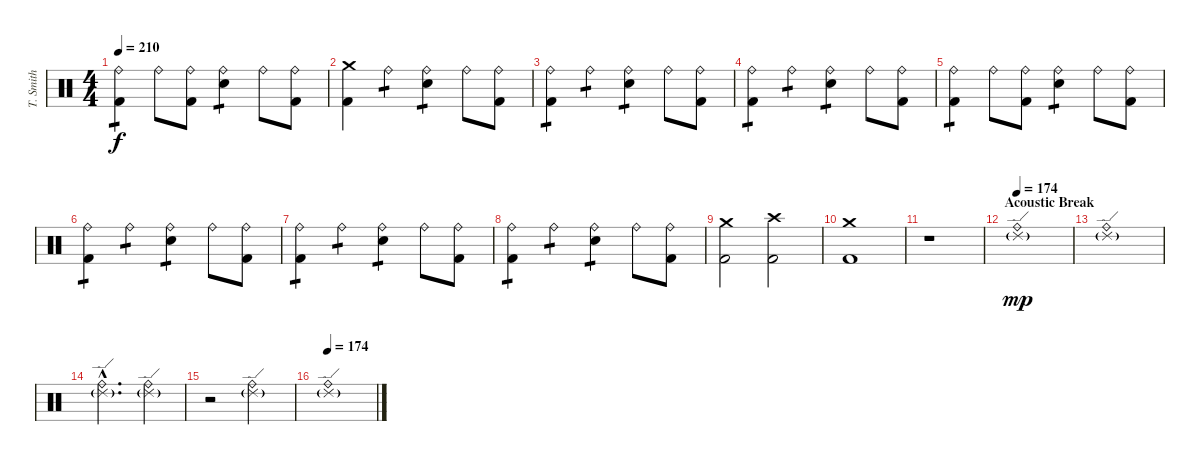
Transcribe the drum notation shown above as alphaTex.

\track ("T. Smith" "T. Smith") {instrument percussion}
\staff {score}
\articulation defaults
\ts (4 4)
\tempo 210
\clef neutral
\ks c
("Ride (bell)" "Kick (hit) 2").4{tp 1 dy f} "Ride (bell)".8 ("Ride (bell)" "Kick (hit) 2").8 ("Ride (bell)" "Electric Snare (hit)").4{tp 1} "Ride (bell)".8 ("Ride (bell)" "Kick (hit) 2").8 |
("Crash medium (hit)" "Kick (hit) 2").4 "Ride (bell)".4{tp 1} ("Ride (bell)" "Electric Snare (hit)").4{tp 1} "Ride (bell)".8 ("Ride (bell)" "Kick (hit) 2").8 |
("Ride (bell)" "Kick (hit) 2").4{tp 1} "Ride (bell)".4{tp 1} ("Ride (bell)" "Electric Snare (hit)").4{tp 1} "Ride (bell)".8 ("Ride (bell)" "Kick (hit) 2").8 |
("Ride (bell)" "Kick (hit) 2").4{tp 1} "Ride (bell)".4{tp 1} ("Ride (bell)" "Electric Snare (hit)").4{tp 1} "Ride (bell)".8 ("Ride (bell)" "Kick (hit) 2").8 |
("Ride (bell)" "Kick (hit) 2").4{tp 1} "Ride (bell)".8 ("Ride (bell)" "Kick (hit) 2").8 ("Ride (bell)" "Electric Snare (hit)").4{tp 1} "Ride (bell)".8 ("Ride (bell)" "Kick (hit) 2").8 |
("Ride (bell)" "Kick (hit) 2").4{tp 1} "Ride (bell)".4{tp 1} ("Ride (bell)" "Electric Snare (hit)").4{tp 1} "Ride (bell)".8 ("Ride (bell)" "Kick (hit) 2").8 |
("Ride (bell)" "Kick (hit) 2").4{tp 1} "Ride (bell)".4{tp 1} ("Ride (bell)" "Electric Snare (hit)").4{tp 1} "Ride (bell)".8 ("Ride (bell)" "Kick (hit) 2").8 |
("Ride (bell)" "Kick (hit) 2").4{tp 1} "Ride (bell)".4{tp 1} ("Ride (bell)" "Electric Snare (hit)").4{tp 1} "Ride (bell)".8 ("Ride (bell)" "Kick (hit) 2").8 |
("Crash medium (hit)" "Kick (hit) 2").2 ("Crash high (hit)" "Kick (hit) 2").2 |
("Crash medium (hit)" "Kick (hit) 2").1 |
r.1 |
\section ("" "Acoustic Break")
\tempo 174
("Ride (bell)" "Ride (edge) 2"{g}).1{dy mp} |
("Ride (bell)" "Ride (edge) 2"{g}).1 |
("Ride (bell)"{hac} "Ride (edge) 2"{g hac}).2{d} ("Ride (bell)" "Ride (edge) 2"{g}).4 |
r.2 ("Ride (bell)" "Ride (edge) 2"{g}).2 |
\tempo 174
("Ride (bell)" "Ride (edge) 2"{g}).1
